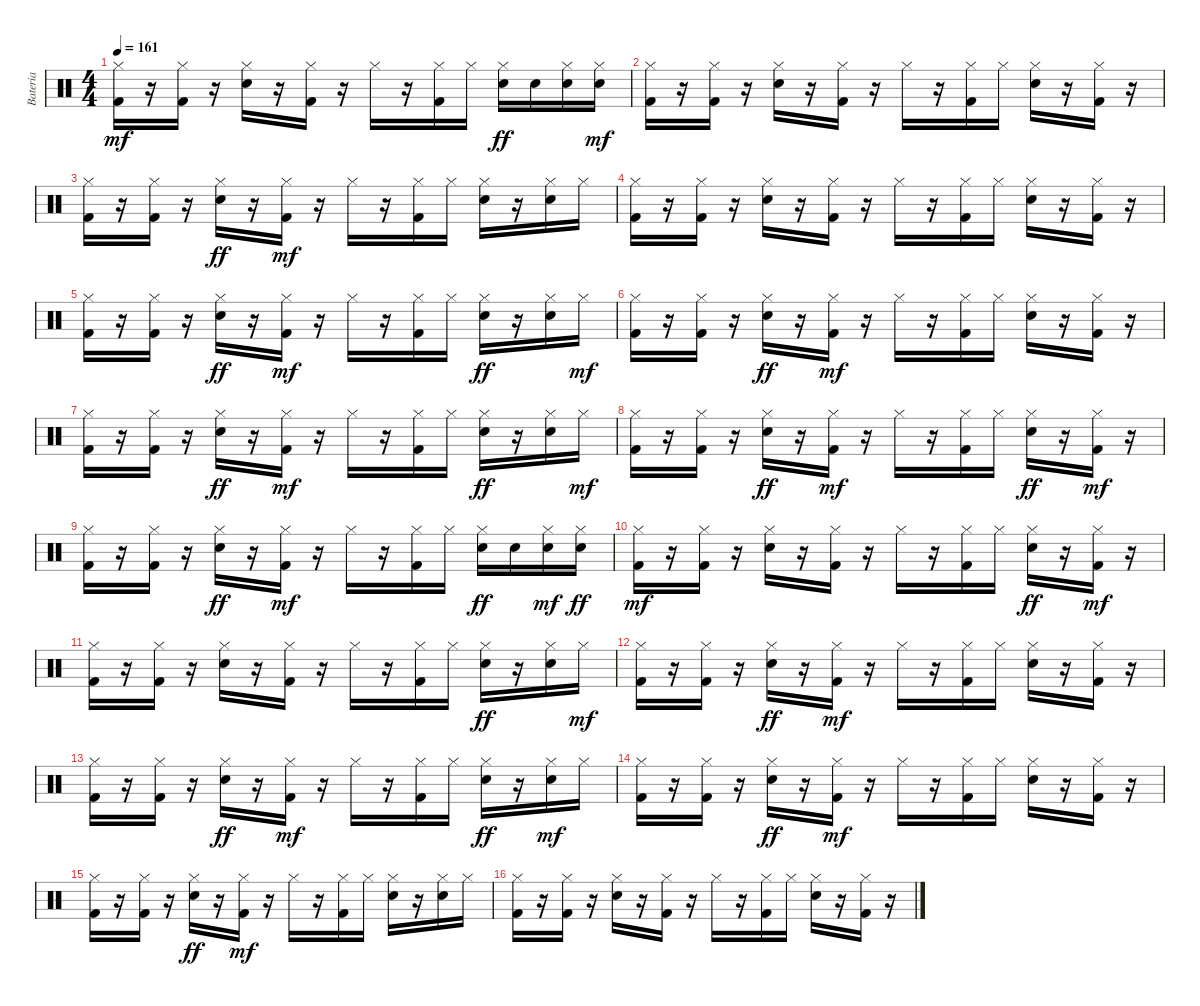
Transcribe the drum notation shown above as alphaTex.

\track ("Bateria" "Bateria") {instrument percussion}
\staff {score}
\articulation defaults
\ts (4 4)
\tempo 161
\clef neutral
\ks c
("Hi-Hat (closed)" "Kick (hit) 2").16{dy mf} r.16 ("Kick (hit) 2" "Hi-Hat (closed)").16 r.16 ("Electric Snare (hit)" "Hi-Hat (closed)").16 r.16 ("Hi-Hat (closed)" "Kick (hit) 2").16 r.16 "Hi-Hat (closed)".16 r.16 ("Kick (hit) 2" "Hi-Hat (closed)").16 "Hi-Hat (closed)".16 ("Hi-Hat (closed)" "Electric Snare (hit)").16{dy ff} "Electric Snare (hit)".16 ("Hi-Hat (closed)" "Electric Snare (hit)").16 ("Electric Snare (hit)" "Hi-Hat (closed)").16{dy mf} |
("Hi-Hat (closed)" "Kick (hit) 2").16 r.16 ("Kick (hit) 2" "Hi-Hat (closed)").16 r.16 ("Electric Snare (hit)" "Hi-Hat (closed)").16 r.16 ("Kick (hit) 2" "Hi-Hat (closed)").16 r.16 "Hi-Hat (closed)".16 r.16 ("Hi-Hat (closed)" "Kick (hit) 2").16 "Hi-Hat (closed)".16 ("Electric Snare (hit)" "Hi-Hat (closed)").16 r.16 ("Kick (hit) 2" "Hi-Hat (closed)").16 r.16 |
("Kick (hit) 2" "Hi-Hat (closed)").16 r.16 ("Hi-Hat (closed)" "Kick (hit) 2").16 r.16 ("Hi-Hat (closed)" "Electric Snare (hit)").16{dy ff} r.16 ("Hi-Hat (closed)" "Kick (hit) 2").16{dy mf} r.16 "Hi-Hat (closed)".16 r.16 ("Kick (hit) 2" "Hi-Hat (closed)").16 "Hi-Hat (closed)".16 ("Electric Snare (hit)" "Hi-Hat (closed)").16 r.16 ("Electric Snare (hit)" "Hi-Hat (closed)").16 "Hi-Hat (closed)".16 |
("Kick (hit) 2" "Hi-Hat (closed)").16 r.16 ("Hi-Hat (closed)" "Kick (hit) 2").16 r.16 ("Electric Snare (hit)" "Hi-Hat (closed)").16 r.16 ("Hi-Hat (closed)" "Kick (hit) 2").16 r.16 "Hi-Hat (closed)".16 r.16 ("Hi-Hat (closed)" "Kick (hit) 2").16 "Hi-Hat (closed)".16 ("Electric Snare (hit)" "Hi-Hat (closed)").16 r.16 ("Hi-Hat (closed)" "Kick (hit) 2").16 r.16 |
("Kick (hit) 2" "Hi-Hat (closed)").16 r.16 ("Kick (hit) 2" "Hi-Hat (closed)").16 r.16 ("Hi-Hat (closed)" "Electric Snare (hit)").16{dy ff} r.16 ("Hi-Hat (closed)" "Kick (hit) 2").16{dy mf} r.16 "Hi-Hat (closed)".16 r.16 ("Hi-Hat (closed)" "Kick (hit) 2").16 "Hi-Hat (closed)".16 ("Hi-Hat (closed)" "Electric Snare (hit)").16{dy ff} r.16 ("Hi-Hat (closed)" "Electric Snare (hit)").16 "Hi-Hat (closed)".16{dy mf} |
("Kick (hit) 2" "Hi-Hat (closed)").16 r.16 ("Kick (hit) 2" "Hi-Hat (closed)").16 r.16 ("Hi-Hat (closed)" "Electric Snare (hit)").16{dy ff} r.16 ("Kick (hit) 2" "Hi-Hat (closed)").16{dy mf} r.16 "Hi-Hat (closed)".16 r.16 ("Kick (hit) 2" "Hi-Hat (closed)").16 "Hi-Hat (closed)".16 ("Electric Snare (hit)" "Hi-Hat (closed)").16 r.16 ("Hi-Hat (closed)" "Kick (hit) 2").16 r.16 |
("Kick (hit) 2" "Hi-Hat (closed)").16 r.16 ("Kick (hit) 2" "Hi-Hat (closed)").16 r.16 ("Hi-Hat (closed)" "Electric Snare (hit)").16{dy ff} r.16 ("Kick (hit) 2" "Hi-Hat (closed)").16{dy mf} r.16 "Hi-Hat (closed)".16 r.16 ("Kick (hit) 2" "Hi-Hat (closed)").16 "Hi-Hat (closed)".16 ("Hi-Hat (closed)" "Electric Snare (hit)").16{dy ff} r.16 ("Hi-Hat (closed)" "Electric Snare (hit)").16 "Hi-Hat (closed)".16{dy mf} |
("Kick (hit) 2" "Hi-Hat (closed)").16 r.16 ("Kick (hit) 2" "Hi-Hat (closed)").16 r.16 ("Hi-Hat (closed)" "Electric Snare (hit)").16{dy ff} r.16 ("Hi-Hat (closed)" "Kick (hit) 2").16{dy mf} r.16 "Hi-Hat (closed)".16 r.16 ("Kick (hit) 2" "Hi-Hat (closed)").16 "Hi-Hat (closed)".16 ("Hi-Hat (closed)" "Electric Snare (hit)").16{dy ff} r.16 ("Hi-Hat (closed)" "Kick (hit) 2").16{dy mf} r.16 |
("Hi-Hat (closed)" "Kick (hit) 2").16 r.16 ("Kick (hit) 2" "Hi-Hat (closed)").16 r.16 ("Hi-Hat (closed)" "Electric Snare (hit)").16{dy ff} r.16 ("Hi-Hat (closed)" "Kick (hit) 2").16{dy mf} r.16 "Hi-Hat (closed)".16 r.16 ("Kick (hit) 2" "Hi-Hat (closed)").16 "Hi-Hat (closed)".16 ("Hi-Hat (closed)" "Electric Snare (hit)").16{dy ff} "Electric Snare (hit)".16 ("Electric Snare (hit)" "Hi-Hat (closed)").16{dy mf} ("Hi-Hat (closed)" "Electric Snare (hit)").16{dy ff} |
("Kick (hit) 2" "Hi-Hat (closed)").16{dy mf} r.16 ("Kick (hit) 2" "Hi-Hat (closed)").16 r.16 ("Electric Snare (hit)" "Hi-Hat (closed)").16 r.16 ("Hi-Hat (closed)" "Kick (hit) 2").16 r.16 "Hi-Hat (closed)".16 r.16 ("Kick (hit) 2" "Hi-Hat (closed)").16 "Hi-Hat (closed)".16 ("Hi-Hat (closed)" "Electric Snare (hit)").16{dy ff} r.16 ("Kick (hit) 2" "Hi-Hat (closed)").16{dy mf} r.16 |
("Hi-Hat (closed)" "Kick (hit) 2").16 r.16 ("Hi-Hat (closed)" "Kick (hit) 2").16 r.16 ("Electric Snare (hit)" "Hi-Hat (closed)").16 r.16 ("Kick (hit) 2" "Hi-Hat (closed)").16 r.16 "Hi-Hat (closed)".16 r.16 ("Kick (hit) 2" "Hi-Hat (closed)").16 "Hi-Hat (closed)".16 ("Hi-Hat (closed)" "Electric Snare (hit)").16{dy ff} r.16 ("Hi-Hat (closed)" "Electric Snare (hit)").16 "Hi-Hat (closed)".16{dy mf} |
("Hi-Hat (closed)" "Kick (hit) 2").16 r.16 ("Kick (hit) 2" "Hi-Hat (closed)").16 r.16 ("Hi-Hat (closed)" "Electric Snare (hit)").16{dy ff} r.16 ("Hi-Hat (closed)" "Kick (hit) 2").16{dy mf} r.16 "Hi-Hat (closed)".16 r.16 ("Kick (hit) 2" "Hi-Hat (closed)").16 "Hi-Hat (closed)".16 ("Electric Snare (hit)" "Hi-Hat (closed)").16 r.16 ("Kick (hit) 2" "Hi-Hat (closed)").16 r.16 |
("Kick (hit) 2" "Hi-Hat (closed)").16 r.16 ("Kick (hit) 2" "Hi-Hat (closed)").16 r.16 ("Hi-Hat (closed)" "Electric Snare (hit)").16{dy ff} r.16 ("Kick (hit) 2" "Hi-Hat (closed)").16{dy mf} r.16 "Hi-Hat (closed)".16 r.16 ("Kick (hit) 2" "Hi-Hat (closed)").16 "Hi-Hat (closed)".16 ("Hi-Hat (closed)" "Electric Snare (hit)").16{dy ff} r.16 ("Electric Snare (hit)" "Hi-Hat (closed)").16{dy mf} "Hi-Hat (closed)".16 |
("Kick (hit) 2" "Hi-Hat (closed)").16 r.16 ("Kick (hit) 2" "Hi-Hat (closed)").16 r.16 ("Hi-Hat (closed)" "Electric Snare (hit)").16{dy ff} r.16 ("Kick (hit) 2" "Hi-Hat (closed)").16{dy mf} r.16 "Hi-Hat (closed)".16 r.16 ("Kick (hit) 2" "Hi-Hat (closed)").16 "Hi-Hat (closed)".16 ("Electric Snare (hit)" "Hi-Hat (closed)").16 r.16 ("Hi-Hat (closed)" "Kick (hit) 2").16 r.16 |
("Hi-Hat (closed)" "Kick (hit) 2").16 r.16 ("Kick (hit) 2" "Hi-Hat (closed)").16 r.16 ("Hi-Hat (closed)" "Electric Snare (hit)").16{dy ff} r.16 ("Hi-Hat (closed)" "Kick (hit) 2").16{dy mf} r.16 "Hi-Hat (closed)".16 r.16 ("Kick (hit) 2" "Hi-Hat (closed)").16 "Hi-Hat (closed)".16 ("Electric Snare (hit)" "Hi-Hat (closed)").16 r.16 ("Electric Snare (hit)" "Hi-Hat (closed)").16 "Hi-Hat (closed)".16 |
("Kick (hit) 2" "Hi-Hat (closed)").16 r.16 ("Hi-Hat (closed)" "Kick (hit) 2").16 r.16 ("Electric Snare (hit)" "Hi-Hat (closed)").16 r.16 ("Hi-Hat (closed)" "Kick (hit) 2").16 r.16 "Hi-Hat (closed)".16 r.16 ("Kick (hit) 2" "Hi-Hat (closed)").16 "Hi-Hat (closed)".16 ("Electric Snare (hit)" "Hi-Hat (closed)").16 r.16 ("Kick (hit) 2" "Hi-Hat (closed)").16 r.16
